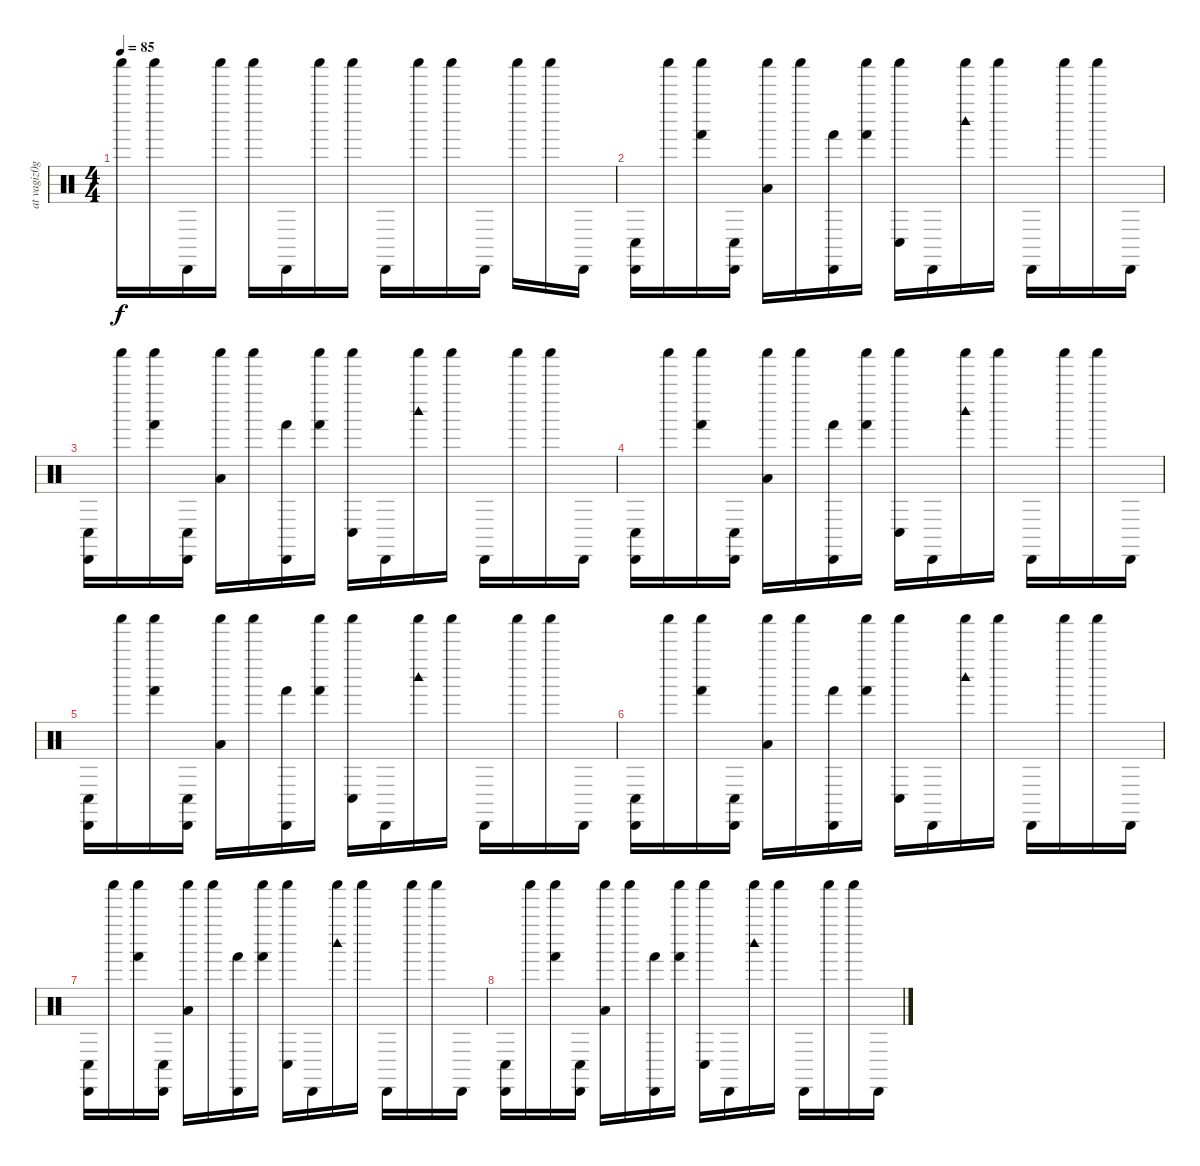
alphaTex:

\track ("at vagiz0g@mail.ru" "at vagiz0g") {instrument percussion}
\staff {score}
\articulation defaults
\ts (4 4)
\tempo 85
\clef neutral
\ks c "Shaker (hit)".16{dy f} "Shaker (hit)".16 "Cabasa (hit)".16 "Shaker (hit)".16 "Shaker (hit)".16 "Cabasa (hit)".16 "Shaker (hit)".16 "Shaker (hit)".16 "Cabasa (hit)".16 "Shaker (hit)".16 "Shaker (hit)".16 "Cabasa (hit)".16 "Shaker (hit)".16 "Shaker (hit)".16 "Cabasa (hit)".16
|
("Cabasa (hit)" "Conga low (hit)").16 "Shaker (hit)".16 ("Shaker (hit)" "Hand (hit)").16 ("Cabasa (hit)" "Conga low (hit)").16 ("Shaker (hit)" "Low Tom (hit)").16 "Shaker (hit)".16 ("Cabasa (hit)" "Hand (hit)").16 ("Shaker (hit)" "Hand (hit)").16 ("Shaker (hit)" "Conga low (hit)").16 "Cabasa (hit)".16 ("Shaker (hit)" "Woodblock high (hit)").16 "Shaker (hit)".16 "Cabasa (hit)".16 "Shaker (hit)".16 "Shaker (hit)".16 "Cabasa (hit)".16 |
("Cabasa (hit)" "Conga low (hit)").16 "Shaker (hit)".16 ("Shaker (hit)" "Hand (hit)").16 ("Cabasa (hit)" "Conga low (hit)").16 ("Shaker (hit)" "Low Tom (hit)").16 "Shaker (hit)".16 ("Cabasa (hit)" "Hand (hit)").16 ("Shaker (hit)" "Hand (hit)").16 ("Shaker (hit)" "Conga low (hit)").16 "Cabasa (hit)".16 ("Shaker (hit)" "Woodblock high (hit)").16 "Shaker (hit)".16 "Cabasa (hit)".16 "Shaker (hit)".16 "Shaker (hit)".16 "Cabasa (hit)".16 |
("Cabasa (hit)" "Conga low (hit)").16 "Shaker (hit)".16 ("Shaker (hit)" "Hand (hit)").16 ("Cabasa (hit)" "Conga low (hit)").16 ("Shaker (hit)" "Low Tom (hit)").16 "Shaker (hit)".16 ("Cabasa (hit)" "Hand (hit)").16 ("Shaker (hit)" "Hand (hit)").16 ("Shaker (hit)" "Conga low (hit)").16 "Cabasa (hit)".16 ("Shaker (hit)" "Woodblock high (hit)").16 "Shaker (hit)".16 "Cabasa (hit)".16 "Shaker (hit)".16 "Shaker (hit)".16 "Cabasa (hit)".16 |
("Cabasa (hit)" "Conga low (hit)").16 "Shaker (hit)".16 ("Shaker (hit)" "Hand (hit)").16 ("Cabasa (hit)" "Conga low (hit)").16 ("Shaker (hit)" "Low Tom (hit)").16 "Shaker (hit)".16 ("Cabasa (hit)" "Hand (hit)").16 ("Shaker (hit)" "Hand (hit)").16 ("Shaker (hit)" "Conga low (hit)").16 "Cabasa (hit)".16 ("Shaker (hit)" "Woodblock high (hit)").16 "Shaker (hit)".16 "Cabasa (hit)".16 "Shaker (hit)".16 "Shaker (hit)".16 "Cabasa (hit)".16 |
("Cabasa (hit)" "Conga low (hit)").16 "Shaker (hit)".16 ("Shaker (hit)" "Hand (hit)").16 ("Cabasa (hit)" "Conga low (hit)").16 ("Shaker (hit)" "Low Tom (hit)").16 "Shaker (hit)".16 ("Cabasa (hit)" "Hand (hit)").16 ("Shaker (hit)" "Hand (hit)").16 ("Shaker (hit)" "Conga low (hit)").16 "Cabasa (hit)".16 ("Shaker (hit)" "Woodblock high (hit)").16 "Shaker (hit)".16 "Cabasa (hit)".16 "Shaker (hit)".16 "Shaker (hit)".16 "Cabasa (hit)".16 |
("Cabasa (hit)" "Conga low (hit)").16 "Shaker (hit)".16 ("Shaker (hit)" "Hand (hit)").16 ("Cabasa (hit)" "Conga low (hit)").16 ("Shaker (hit)" "Low Tom (hit)").16 "Shaker (hit)".16 ("Cabasa (hit)" "Hand (hit)").16 ("Shaker (hit)" "Hand (hit)").16 ("Shaker (hit)" "Conga low (hit)").16 "Cabasa (hit)".16 ("Shaker (hit)" "Woodblock high (hit)").16 "Shaker (hit)".16 "Cabasa (hit)".16 "Shaker (hit)".16 "Shaker (hit)".16 "Cabasa (hit)".16 |
("Cabasa (hit)" "Conga low (hit)").16 "Shaker (hit)".16 ("Shaker (hit)" "Hand (hit)").16 ("Cabasa (hit)" "Conga low (hit)").16 ("Shaker (hit)" "Low Tom (hit)").16 "Shaker (hit)".16 ("Cabasa (hit)" "Hand (hit)").16 ("Shaker (hit)" "Hand (hit)").16 ("Shaker (hit)" "Conga low (hit)").16 "Cabasa (hit)".16 ("Shaker (hit)" "Woodblock high (hit)").16 "Shaker (hit)".16 "Cabasa (hit)".16 "Shaker (hit)".16 "Shaker (hit)".16 "Cabasa (hit)".16
